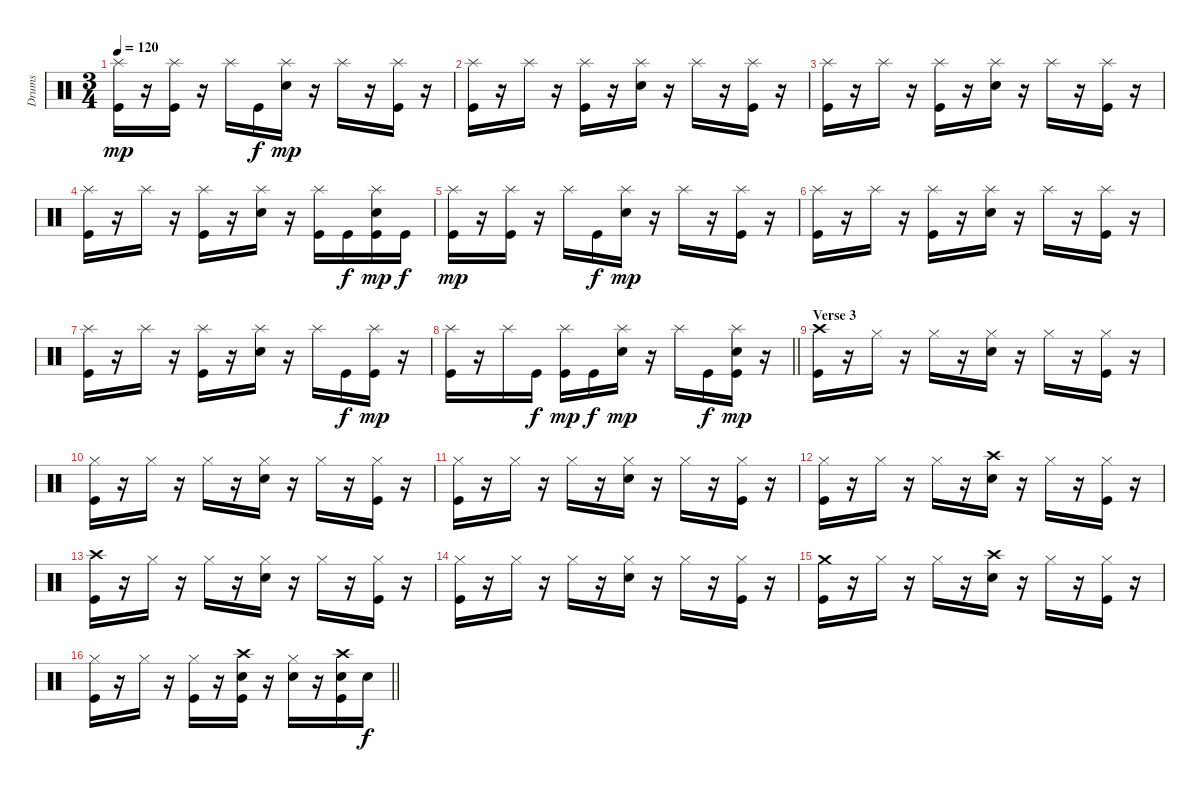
\track ("Drums" "Drums") {instrument percussion}
\staff {score}
\articulation defaults
\ts (3 4)
\tempo 120
\clef neutral
\ks c
("Kick (hit)" "Splash (hit)").16{dy mp} r.16 ("Kick (hit)" "Splash (hit)").16 r.16 "Splash (hit)".16 "Kick (hit)".16{dy f} ("Splash (hit)" "Snare (hit) 2").16{dy mp} r.16 "Splash (hit)".16 r.16 ("Kick (hit)" "Splash (hit)").16 r.16 |
("Kick (hit)" "Splash (hit)").16 r.16 "Splash (hit)".16 r.16 ("Kick (hit)" "Splash (hit)").16 r.16 ("Splash (hit)" "Snare (hit) 2").16 r.16 "Splash (hit)".16 r.16 ("Kick (hit)" "Splash (hit)").16 r.16 |
("Kick (hit)" "Splash (hit)").16 r.16 "Splash (hit)".16 r.16 ("Kick (hit)" "Splash (hit)").16 r.16 ("Splash (hit)" "Snare (hit) 2").16 r.16 "Splash (hit)".16 r.16 ("Kick (hit)" "Splash (hit)").16 r.16 |
("Kick (hit)" "Splash (hit)").16 r.16 "Splash (hit)".16 r.16 ("Kick (hit)" "Splash (hit)").16 r.16 ("Splash (hit)" "Snare (hit) 2").16 r.16 ("Kick (hit)" "Splash (hit)").16 "Kick (hit)".16{dy f} ("Kick (hit)" "Splash (hit)" "Snare (hit) 2").16{dy mp} "Kick (hit)".16{dy f} |
("Kick (hit)" "Splash (hit)").16{dy mp} r.16 ("Kick (hit)" "Splash (hit)").16 r.16 "Splash (hit)".16 "Kick (hit)".16{dy f} ("Splash (hit)" "Snare (hit) 2").16{dy mp} r.16 "Splash (hit)".16 r.16 ("Kick (hit)" "Splash (hit)").16 r.16 |
("Kick (hit)" "Splash (hit)").16 r.16 "Splash (hit)".16 r.16 ("Kick (hit)" "Splash (hit)").16 r.16 ("Splash (hit)" "Snare (hit) 2").16 r.16 "Splash (hit)".16 r.16 ("Kick (hit)" "Splash (hit)").16 r.16 |
("Kick (hit)" "Splash (hit)").16 r.16 "Splash (hit)".16 r.16 ("Kick (hit)" "Splash (hit)").16 r.16 ("Splash (hit)" "Snare (hit) 2").16 r.16 "Splash (hit)".16 "Kick (hit)".16{dy f} ("Kick (hit)" "Splash (hit)").16{dy mp} r.16 |
\barLineRight lightlight
("Kick (hit)" "Splash (hit)").16 r.16 "Splash (hit)".16 "Kick (hit)".16{dy f} ("Kick (hit)" "Splash (hit)").16{dy mp} "Kick (hit)".16{dy f} ("Splash (hit)" "Snare (hit) 2").16{dy mp} r.16 "Splash (hit)".16 "Kick (hit)".16{dy f} ("Kick (hit)" "Splash (hit)" "Snare (hit) 2").16{dy mp} r.16 |
\section ("" "Verse 3")
("Kick (hit)" "Crash high (hit)").16 r.16 "Hi-Hat (closed)".16 r.16 "Hi-Hat (closed)".16 r.16 ("Hi-Hat (closed)" "Snare (hit) 2").16 r.16 "Hi-Hat (closed)".16 r.16 ("Kick (hit)" "Hi-Hat (closed)").16 r.16 |
("Kick (hit)" "Hi-Hat (closed)").16 r.16 "Hi-Hat (closed)".16 r.16 "Hi-Hat (closed)".16 r.16 ("Hi-Hat (closed)" "Snare (hit) 2").16 r.16 "Hi-Hat (closed)".16 r.16 ("Kick (hit)" "Hi-Hat (closed)").16 r.16 |
("Kick (hit)" "Hi-Hat (closed)").16 r.16 "Hi-Hat (closed)".16 r.16 "Hi-Hat (closed)".16 r.16 ("Hi-Hat (closed)" "Snare (hit) 2").16 r.16 "Hi-Hat (closed)".16 r.16 ("Kick (hit)" "Hi-Hat (closed)").16 r.16 |
("Kick (hit)" "Hi-Hat (closed)").16 r.16 "Hi-Hat (closed)".16 r.16 "Hi-Hat (closed)".16 r.16 ("Crash high (hit)" "Snare (hit) 2").16 r.16 "Hi-Hat (closed)".16 r.16 ("Kick (hit)" "Hi-Hat (closed)").16 r.16 |
("Kick (hit)" "Crash high (hit)").16 r.16 "Hi-Hat (closed)".16 r.16 "Hi-Hat (closed)".16 r.16 ("Hi-Hat (closed)" "Snare (hit) 2").16 r.16 "Hi-Hat (closed)".16 r.16 ("Kick (hit)" "Hi-Hat (closed)").16 r.16 |
("Kick (hit)" "Hi-Hat (closed)").16 r.16 "Hi-Hat (closed)".16 r.16 "Hi-Hat (closed)".16 r.16 ("Hi-Hat (closed)" "Snare (hit) 2").16 r.16 "Hi-Hat (closed)".16 r.16 ("Kick (hit)" "Hi-Hat (closed)").16 r.16 |
("Kick (hit)" "Crash medium (hit)").16 r.16 "Hi-Hat (closed)".16 r.16 "Hi-Hat (closed)".16 r.16 ("Crash high (hit)" "Snare (hit) 2").16 r.16 "Hi-Hat (closed)".16 r.16 ("Kick (hit)" "Hi-Hat (closed)").16 r.16 |
\barLineRight lightlight
("Kick (hit)" "Hi-Hat (closed)").16 r.16 "Hi-Hat (closed)".16 r.16 ("Kick (hit)" "Hi-Hat (closed)").16 r.16 ("Kick (hit)" "Crash high (hit)" "Snare (hit) 2").16 r.16 ("Hi-Hat (closed)" "Snare (hit) 2").16 r.16 ("Kick (hit)" "Crash high (hit)" "Snare (hit) 2").16 "Snare (hit) 2".16{dy f}
